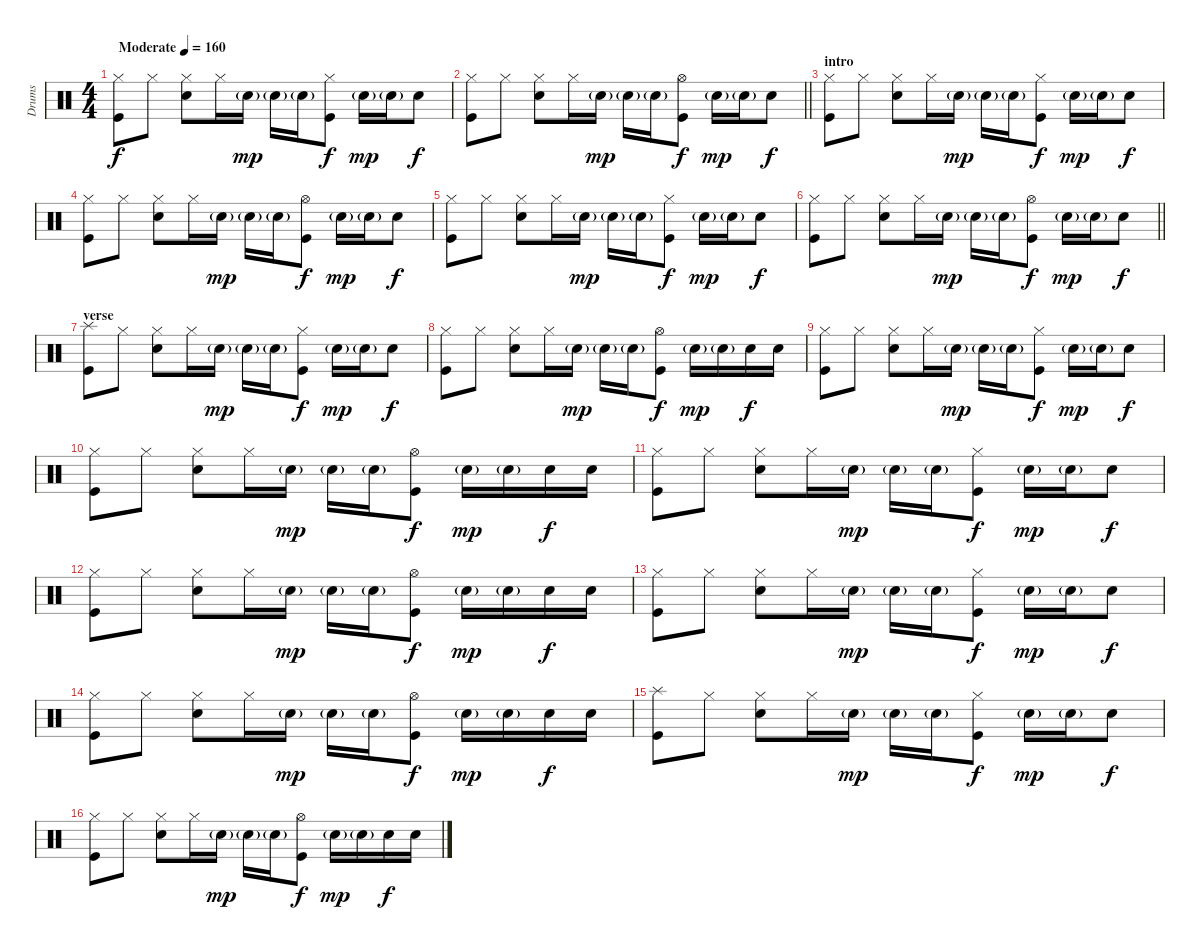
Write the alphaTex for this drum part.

\track ("Drums" "Drums") {instrument percussion}
\staff {score}
\articulation defaults
\ts (4 4)
\tempo (160 "Moderate")
\clef neutral
\ks c
("Hi-Hat (closed)" "Kick (hit)").8{dy f volume 10} "Hi-Hat (closed)".8 ("Hi-Hat (closed)" "Electric Snare (hit)").8 "Hi-Hat (closed)".16 "Electric Snare (hit)"{g}.16{dy mp} "Electric Snare (hit)"{g}.16 "Electric Snare (hit)"{g}.16 ("Hi-Hat (closed)" "Kick (hit)").8{dy f} "Electric Snare (hit)"{g}.16{dy mp} "Electric Snare (hit)"{g}.16 "Electric Snare (hit)".8{dy f} |
\barLineRight lightlight
("Hi-Hat (closed)" "Kick (hit)").8 "Hi-Hat (closed)".8 ("Hi-Hat (closed)" "Electric Snare (hit)").8 "Hi-Hat (closed)".16 "Electric Snare (hit)"{g}.16{dy mp} "Electric Snare (hit)"{g}.16 "Electric Snare (hit)"{g}.16 ("Hi-Hat (open)" "Kick (hit)").8{dy f} "Electric Snare (hit)"{g}.16{dy mp} "Electric Snare (hit)"{g}.16 "Electric Snare (hit)".8{dy f} |
\section ("" "intro")
("Hi-Hat (closed)" "Kick (hit)").8 "Hi-Hat (closed)".8 ("Hi-Hat (closed)" "Electric Snare (hit)").8 "Hi-Hat (closed)".16 "Electric Snare (hit)"{g}.16{dy mp} "Electric Snare (hit)"{g}.16 "Electric Snare (hit)"{g}.16 ("Hi-Hat (closed)" "Kick (hit)").8{dy f} "Electric Snare (hit)"{g}.16{dy mp} "Electric Snare (hit)"{g}.16 "Electric Snare (hit)".8{dy f} |
("Hi-Hat (closed)" "Kick (hit)").8 "Hi-Hat (closed)".8 ("Hi-Hat (closed)" "Electric Snare (hit)").8 "Hi-Hat (closed)".16 "Electric Snare (hit)"{g}.16{dy mp} "Electric Snare (hit)"{g}.16 "Electric Snare (hit)"{g}.16 ("Hi-Hat (open)" "Kick (hit)").8{dy f} "Electric Snare (hit)"{g}.16{dy mp} "Electric Snare (hit)"{g}.16 "Electric Snare (hit)".8{dy f} |
("Hi-Hat (closed)" "Kick (hit)").8 "Hi-Hat (closed)".8 ("Hi-Hat (closed)" "Electric Snare (hit)").8 "Hi-Hat (closed)".16 "Electric Snare (hit)"{g}.16{dy mp} "Electric Snare (hit)"{g}.16 "Electric Snare (hit)"{g}.16 ("Hi-Hat (closed)" "Kick (hit)").8{dy f} "Electric Snare (hit)"{g}.16{dy mp} "Electric Snare (hit)"{g}.16 "Electric Snare (hit)".8{dy f} |
\barLineRight lightlight
("Hi-Hat (closed)" "Kick (hit)").8 "Hi-Hat (closed)".8 ("Hi-Hat (closed)" "Electric Snare (hit)").8 "Hi-Hat (closed)".16 "Electric Snare (hit)"{g}.16{dy mp} "Electric Snare (hit)"{g}.16 "Electric Snare (hit)"{g}.16 ("Hi-Hat (open)" "Kick (hit)").8{dy f} "Electric Snare (hit)"{g}.16{dy mp} "Electric Snare (hit)"{g}.16 "Electric Snare (hit)".8{dy f} |
\section ("" "verse")
("Splash (hit)" "Kick (hit)").8{volume 16} "Hi-Hat (closed)".8 ("Hi-Hat (closed)" "Electric Snare (hit)").8 "Hi-Hat (closed)".16 "Electric Snare (hit)"{g}.16{dy mp} "Electric Snare (hit)"{g}.16 "Electric Snare (hit)"{g}.16 ("Hi-Hat (closed)" "Kick (hit)").8{dy f} "Electric Snare (hit)"{g}.16{dy mp} "Electric Snare (hit)"{g}.16 "Electric Snare (hit)".8{dy f} |
("Hi-Hat (closed)" "Kick (hit)").8 "Hi-Hat (closed)".8 ("Hi-Hat (closed)" "Electric Snare (hit)").8 "Hi-Hat (closed)".16 "Electric Snare (hit)"{g}.16{dy mp} "Electric Snare (hit)"{g}.16 "Electric Snare (hit)"{g}.16 ("Hi-Hat (open)" "Kick (hit)").8{dy f} "Electric Snare (hit)"{g}.16{dy mp} "Electric Snare (hit)"{g}.16 "Electric Snare (hit)".16{dy f} "Electric Snare (hit)".16 |
("Hi-Hat (closed)" "Kick (hit)").8 "Hi-Hat (closed)".8 ("Hi-Hat (closed)" "Electric Snare (hit)").8 "Hi-Hat (closed)".16 "Electric Snare (hit)"{g}.16{dy mp} "Electric Snare (hit)"{g}.16 "Electric Snare (hit)"{g}.16 ("Hi-Hat (closed)" "Kick (hit)").8{dy f} "Electric Snare (hit)"{g}.16{dy mp} "Electric Snare (hit)"{g}.16 "Electric Snare (hit)".8{dy f} |
("Hi-Hat (closed)" "Kick (hit)").8 "Hi-Hat (closed)".8 ("Hi-Hat (closed)" "Electric Snare (hit)").8 "Hi-Hat (closed)".16 "Electric Snare (hit)"{g}.16{dy mp} "Electric Snare (hit)"{g}.16 "Electric Snare (hit)"{g}.16 ("Hi-Hat (open)" "Kick (hit)").8{dy f} "Electric Snare (hit)"{g}.16{dy mp} "Electric Snare (hit)"{g}.16 "Electric Snare (hit)".16{dy f} "Electric Snare (hit)".16 |
("Hi-Hat (closed)" "Kick (hit)").8 "Hi-Hat (closed)".8 ("Hi-Hat (closed)" "Electric Snare (hit)").8 "Hi-Hat (closed)".16 "Electric Snare (hit)"{g}.16{dy mp} "Electric Snare (hit)"{g}.16 "Electric Snare (hit)"{g}.16 ("Hi-Hat (closed)" "Kick (hit)").8{dy f} "Electric Snare (hit)"{g}.16{dy mp} "Electric Snare (hit)"{g}.16 "Electric Snare (hit)".8{dy f} |
("Hi-Hat (closed)" "Kick (hit)").8 "Hi-Hat (closed)".8 ("Hi-Hat (closed)" "Electric Snare (hit)").8 "Hi-Hat (closed)".16 "Electric Snare (hit)"{g}.16{dy mp} "Electric Snare (hit)"{g}.16 "Electric Snare (hit)"{g}.16 ("Hi-Hat (open)" "Kick (hit)").8{dy f} "Electric Snare (hit)"{g}.16{dy mp} "Electric Snare (hit)"{g}.16 "Electric Snare (hit)".16{dy f} "Electric Snare (hit)".16 |
("Hi-Hat (closed)" "Kick (hit)").8 "Hi-Hat (closed)".8 ("Hi-Hat (closed)" "Electric Snare (hit)").8 "Hi-Hat (closed)".16 "Electric Snare (hit)"{g}.16{dy mp} "Electric Snare (hit)"{g}.16 "Electric Snare (hit)"{g}.16 ("Hi-Hat (closed)" "Kick (hit)").8{dy f} "Electric Snare (hit)"{g}.16{dy mp} "Electric Snare (hit)"{g}.16 "Electric Snare (hit)".8{dy f} |
("Hi-Hat (closed)" "Kick (hit)").8 "Hi-Hat (closed)".8 ("Hi-Hat (closed)" "Electric Snare (hit)").8 "Hi-Hat (closed)".16 "Electric Snare (hit)"{g}.16{dy mp} "Electric Snare (hit)"{g}.16 "Electric Snare (hit)"{g}.16 ("Hi-Hat (open)" "Kick (hit)").8{dy f} "Electric Snare (hit)"{g}.16{dy mp} "Electric Snare (hit)"{g}.16 "Electric Snare (hit)".16{dy f} "Electric Snare (hit)".16 |
("Splash (hit)" "Kick (hit)").8{volume 14} "Hi-Hat (closed)".8 ("Hi-Hat (closed)" "Electric Snare (hit)").8 "Hi-Hat (closed)".16 "Electric Snare (hit)"{g}.16{dy mp} "Electric Snare (hit)"{g}.16 "Electric Snare (hit)"{g}.16 ("Hi-Hat (closed)" "Kick (hit)").8{dy f} "Electric Snare (hit)"{g}.16{dy mp} "Electric Snare (hit)"{g}.16 "Electric Snare (hit)".8{dy f} |
("Hi-Hat (closed)" "Kick (hit)").8 "Hi-Hat (closed)".8 ("Hi-Hat (closed)" "Electric Snare (hit)").8 "Hi-Hat (closed)".16 "Electric Snare (hit)"{g}.16{dy mp} "Electric Snare (hit)"{g}.16 "Electric Snare (hit)"{g}.16 ("Hi-Hat (open)" "Kick (hit)").8{dy f} "Electric Snare (hit)"{g}.16{dy mp} "Electric Snare (hit)"{g}.16 "Electric Snare (hit)".16{dy f} "Electric Snare (hit)".16
